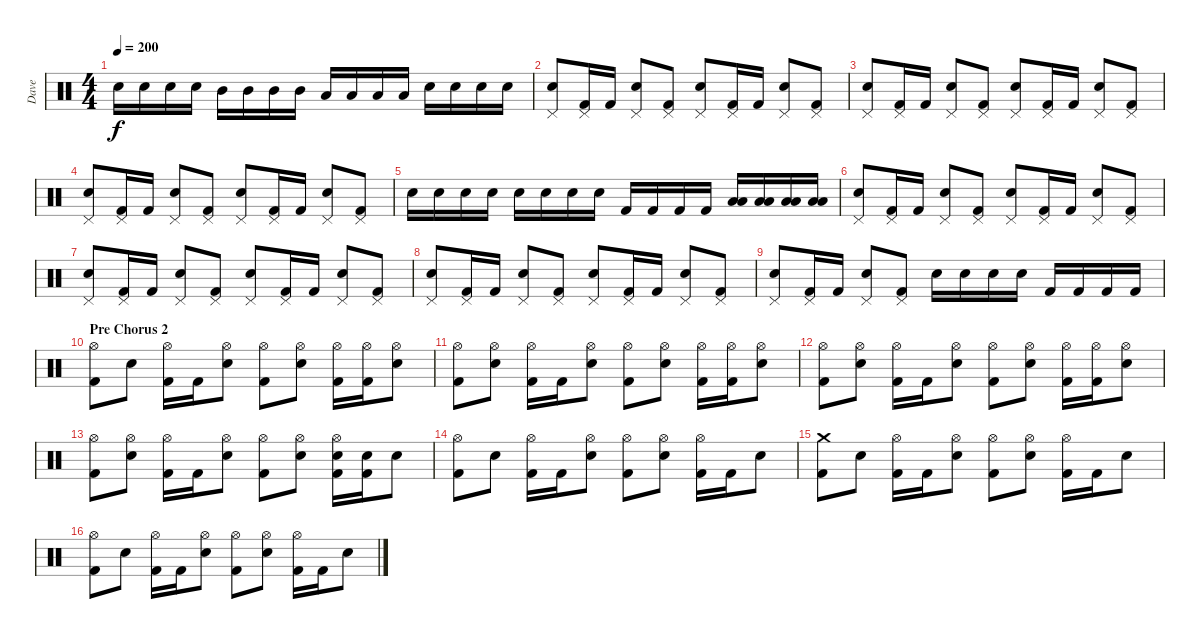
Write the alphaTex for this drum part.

\track ("Dave" "Dave") {instrument percussion}
\staff {score}
\articulation defaults
\ts (4 4)
\tempo 200
\clef neutral
\ks c "Snare (hit) 2".16{dy f} "Snare (hit) 2".16 "Snare (hit) 2".16 "Snare (hit) 2".16 "Mid Tom (hit)".16 "Mid Tom (hit)".16 "Mid Tom (hit)".16 "Mid Tom (hit)".16 "Low Tom (hit)".16 "Low Tom (hit)".16 "Low Tom (hit)".16 "Low Tom (hit)".16 "Snare (hit) 2".16 "Snare (hit) 2".16 "Snare (hit) 2".16 "Snare (hit) 2".16
|
("Pedal Hi-Hat (hit)" "Snare (hit) 2").8 ("Pedal Hi-Hat (hit)" "Kick (hit) 2").16 "Kick (hit) 2".16 ("Pedal Hi-Hat (hit)" "Snare (hit) 2").8 ("Pedal Hi-Hat (hit)" "Kick (hit) 2").8 ("Pedal Hi-Hat (hit)" "Snare (hit) 2").8 ("Pedal Hi-Hat (hit)" "Kick (hit) 2").16 "Kick (hit) 2".16 ("Pedal Hi-Hat (hit)" "Snare (hit) 2").8 ("Pedal Hi-Hat (hit)" "Kick (hit) 2").8 |
("Pedal Hi-Hat (hit)" "Snare (hit) 2").8 ("Pedal Hi-Hat (hit)" "Kick (hit) 2").16 "Kick (hit) 2".16 ("Pedal Hi-Hat (hit)" "Snare (hit) 2").8 ("Pedal Hi-Hat (hit)" "Kick (hit) 2").8 ("Pedal Hi-Hat (hit)" "Snare (hit) 2").8 ("Pedal Hi-Hat (hit)" "Kick (hit) 2").16 "Kick (hit) 2".16 ("Pedal Hi-Hat (hit)" "Snare (hit) 2").8 ("Pedal Hi-Hat (hit)" "Kick (hit) 2").8 |
("Pedal Hi-Hat (hit)" "Snare (hit) 2").8 ("Pedal Hi-Hat (hit)" "Kick (hit) 2").16 "Kick (hit) 2".16 ("Pedal Hi-Hat (hit)" "Snare (hit) 2").8 ("Pedal Hi-Hat (hit)" "Kick (hit) 2").8 ("Pedal Hi-Hat (hit)" "Snare (hit) 2").8 ("Pedal Hi-Hat (hit)" "Kick (hit) 2").16 "Kick (hit) 2".16 ("Pedal Hi-Hat (hit)" "Snare (hit) 2").8 ("Pedal Hi-Hat (hit)" "Kick (hit) 2").8 |
"Snare (hit) 2".16 "Snare (hit) 2".16 "Snare (hit) 2".16 "Snare (hit) 2".16 "Snare (hit) 2".16 "Snare (hit) 2".16 "Snare (hit) 2".16 "Snare (hit) 2".16 "Kick (hit) 2".16 "Kick (hit) 2".16 "Kick (hit) 2".16 "Kick (hit) 2".16 ("Low Floor Tom (hit)" "Low Floor Tom (hit)").16 ("Low Floor Tom (hit)" "Low Floor Tom (hit)").16 ("Low Floor Tom (hit)" "Low Floor Tom (hit)").16 ("Low Floor Tom (hit)" "Low Floor Tom (hit)").16 |
("Pedal Hi-Hat (hit)" "Snare (hit) 2").8 ("Pedal Hi-Hat (hit)" "Kick (hit) 2").16 "Kick (hit) 2".16 ("Pedal Hi-Hat (hit)" "Snare (hit) 2").8 ("Pedal Hi-Hat (hit)" "Kick (hit) 2").8 ("Pedal Hi-Hat (hit)" "Snare (hit) 2").8 ("Pedal Hi-Hat (hit)" "Kick (hit) 2").16 "Kick (hit) 2".16 ("Pedal Hi-Hat (hit)" "Snare (hit) 2").8 ("Pedal Hi-Hat (hit)" "Kick (hit) 2").8 |
("Pedal Hi-Hat (hit)" "Snare (hit) 2").8 ("Pedal Hi-Hat (hit)" "Kick (hit) 2").16 "Kick (hit) 2".16 ("Pedal Hi-Hat (hit)" "Snare (hit) 2").8 ("Pedal Hi-Hat (hit)" "Kick (hit) 2").8 ("Pedal Hi-Hat (hit)" "Snare (hit) 2").8 ("Pedal Hi-Hat (hit)" "Kick (hit) 2").16 "Kick (hit) 2".16 ("Pedal Hi-Hat (hit)" "Snare (hit) 2").8 ("Pedal Hi-Hat (hit)" "Kick (hit) 2").8 |
("Pedal Hi-Hat (hit)" "Snare (hit) 2").8 ("Pedal Hi-Hat (hit)" "Kick (hit) 2").16 "Kick (hit) 2".16 ("Pedal Hi-Hat (hit)" "Snare (hit) 2").8 ("Pedal Hi-Hat (hit)" "Kick (hit) 2").8 ("Pedal Hi-Hat (hit)" "Snare (hit) 2").8 ("Pedal Hi-Hat (hit)" "Kick (hit) 2").16 "Kick (hit) 2".16 ("Pedal Hi-Hat (hit)" "Snare (hit) 2").8 ("Pedal Hi-Hat (hit)" "Kick (hit) 2").8 |
("Pedal Hi-Hat (hit)" "Snare (hit) 2").8 ("Pedal Hi-Hat (hit)" "Kick (hit) 2").16 "Kick (hit) 2".16 ("Pedal Hi-Hat (hit)" "Snare (hit) 2").8 ("Pedal Hi-Hat (hit)" "Kick (hit) 2").8 "Snare (hit) 2".16 "Snare (hit) 2".16 "Snare (hit) 2".16 "Snare (hit) 2".16 "Kick (hit) 2".16 "Kick (hit) 2".16 "Kick (hit) 2".16 "Kick (hit) 2".16 |
\section ("" "Pre Chorus 2")
("Hi-Hat (open)" "Kick (hit) 2").8 "Snare (hit) 2".8 ("Hi-Hat (open)" "Kick (hit) 2").16 "Kick (hit) 2".16 ("Hi-Hat (open)" "Snare (hit) 2").8 ("Hi-Hat (open)" "Kick (hit) 2").8 ("Hi-Hat (open)" "Snare (hit) 2").8 ("Hi-Hat (open)" "Kick (hit) 2").16 ("Hi-Hat (open)" "Kick (hit) 2").16 ("Hi-Hat (open)" "Snare (hit) 2").8 |
("Hi-Hat (open)" "Kick (hit) 2").8 ("Hi-Hat (open)" "Snare (hit) 2").8 ("Hi-Hat (open)" "Kick (hit) 2").16 "Kick (hit) 2".16 ("Hi-Hat (open)" "Snare (hit) 2").8 ("Hi-Hat (open)" "Kick (hit) 2").8 ("Hi-Hat (open)" "Snare (hit) 2").8 ("Hi-Hat (open)" "Kick (hit) 2").16 ("Hi-Hat (open)" "Kick (hit) 2").16 ("Hi-Hat (open)" "Snare (hit) 2").8 |
("Hi-Hat (open)" "Kick (hit) 2").8 ("Hi-Hat (open)" "Snare (hit) 2").8 ("Hi-Hat (open)" "Kick (hit) 2").16 "Kick (hit) 2".16 ("Hi-Hat (open)" "Snare (hit) 2").8 ("Hi-Hat (open)" "Kick (hit) 2").8 ("Hi-Hat (open)" "Snare (hit) 2").8 ("Hi-Hat (open)" "Kick (hit) 2").16 ("Hi-Hat (open)" "Kick (hit) 2").16 ("Hi-Hat (open)" "Snare (hit) 2").8 |
("Hi-Hat (open)" "Kick (hit) 2").8 ("Hi-Hat (open)" "Snare (hit) 2").8 ("Hi-Hat (open)" "Kick (hit) 2").16 "Kick (hit) 2".16 ("Hi-Hat (open)" "Snare (hit) 2").8 ("Hi-Hat (open)" "Kick (hit) 2").8 ("Hi-Hat (open)" "Snare (hit) 2").8 ("Hi-Hat (open)" "Snare (hit) 2" "Kick (hit) 2").16 ("Snare (hit) 2" "Kick (hit) 2").16 "Snare (hit) 2".8 |
("Hi-Hat (open)" "Kick (hit) 2").8 "Snare (hit) 2".8 ("Hi-Hat (open)" "Kick (hit) 2").16 "Kick (hit) 2".16 ("Hi-Hat (open)" "Snare (hit) 2").8 ("Hi-Hat (open)" "Kick (hit) 2").8 ("Hi-Hat (open)" "Snare (hit) 2").8 ("Hi-Hat (open)" "Kick (hit) 2").16 "Kick (hit) 2".16 "Snare (hit) 2".8 |
("Crash medium (hit)" "Kick (hit) 2").8 "Snare (hit) 2".8 ("Hi-Hat (open)" "Kick (hit) 2").16 "Kick (hit) 2".16 ("Hi-Hat (open)" "Snare (hit) 2").8 ("Hi-Hat (open)" "Kick (hit) 2").8 ("Hi-Hat (open)" "Snare (hit) 2").8 ("Hi-Hat (open)" "Kick (hit) 2").16 "Kick (hit) 2".16 "Snare (hit) 2".8 |
("Hi-Hat (open)" "Kick (hit) 2").8 "Snare (hit) 2".8 ("Hi-Hat (open)" "Kick (hit) 2").16 "Kick (hit) 2".16 ("Hi-Hat (open)" "Snare (hit) 2").8 ("Hi-Hat (open)" "Kick (hit) 2").8 ("Hi-Hat (open)" "Snare (hit) 2").8 ("Hi-Hat (open)" "Kick (hit) 2").16 "Kick (hit) 2".16 "Snare (hit) 2".8
